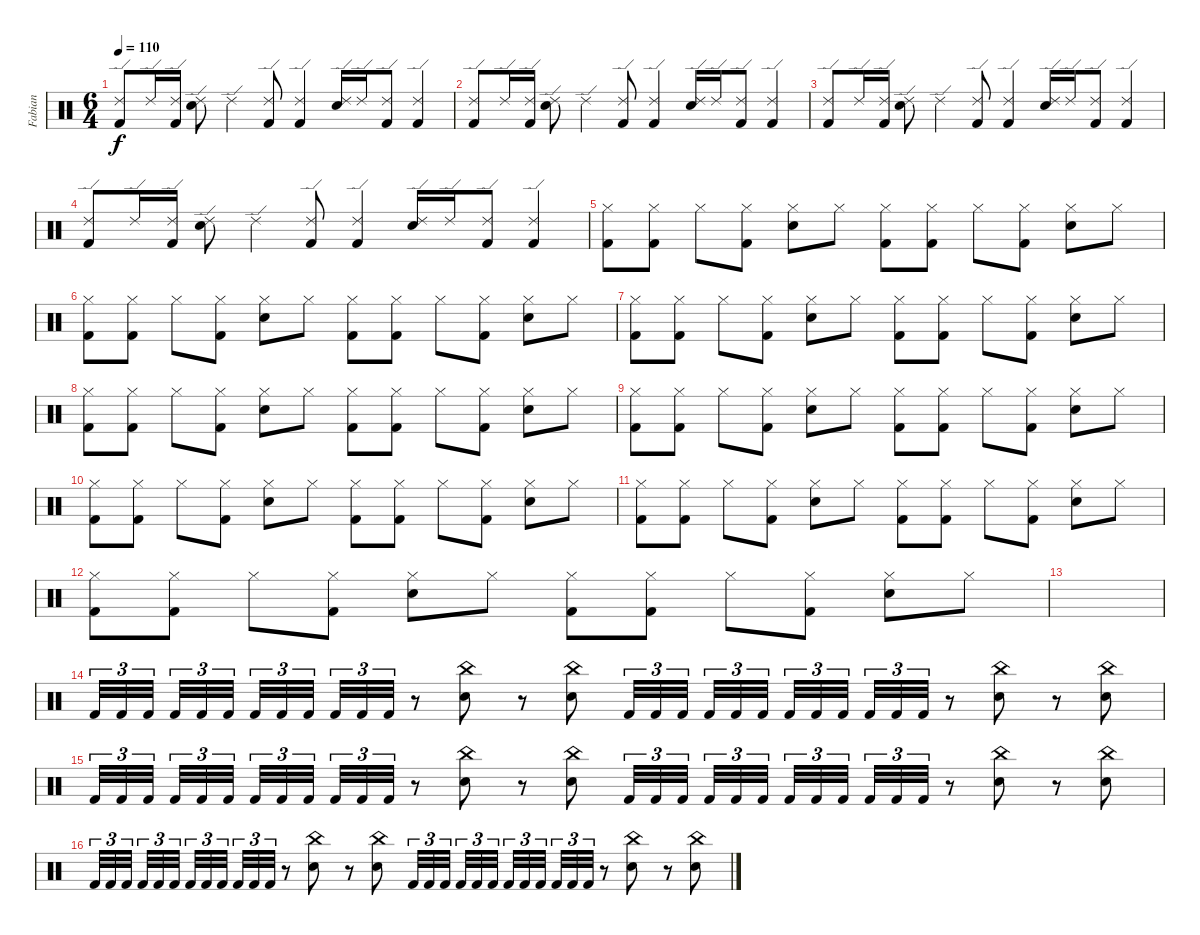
\track ("Fabian" "Fabian") {instrument percussion}
\staff {score}
\articulation defaults
\ts (6 4)
\tempo 110
\clef neutral
\ks c
("Ride (edge) 2" "Kick (hit) 2").8{dy f} "Ride (edge) 2".16 ("Ride (edge) 2" "Kick (hit) 2").16 ("Ride (edge) 2" "Snare (hit) 2").8 "Ride (edge) 2".4 ("Ride (edge) 2" "Kick (hit) 2").8 ("Ride (edge) 2" "Kick (hit) 2").4 ("Ride (edge) 2" "Snare (hit) 2").16 "Ride (edge) 2".16 ("Ride (edge) 2" "Kick (hit) 2").8 ("Ride (edge) 2" "Kick (hit) 2").4 |
("Ride (edge) 2" "Kick (hit) 2").8 "Ride (edge) 2".16 ("Ride (edge) 2" "Kick (hit) 2").16 ("Ride (edge) 2" "Snare (hit) 2").8 "Ride (edge) 2".4 ("Ride (edge) 2" "Kick (hit) 2").8 ("Ride (edge) 2" "Kick (hit) 2").4 ("Ride (edge) 2" "Snare (hit) 2").16 "Ride (edge) 2".16 ("Ride (edge) 2" "Kick (hit) 2").8 ("Ride (edge) 2" "Kick (hit) 2").4 |
("Ride (edge) 2" "Kick (hit) 2").8 "Ride (edge) 2".16 ("Ride (edge) 2" "Kick (hit) 2").16 ("Ride (edge) 2" "Snare (hit) 2").8 "Ride (edge) 2".4 ("Ride (edge) 2" "Kick (hit) 2").8 ("Ride (edge) 2" "Kick (hit) 2").4 ("Ride (edge) 2" "Snare (hit) 2").16 "Ride (edge) 2".16 ("Ride (edge) 2" "Kick (hit) 2").8 ("Ride (edge) 2" "Kick (hit) 2").4 |
("Ride (edge) 2" "Kick (hit) 2").8 "Ride (edge) 2".16 ("Ride (edge) 2" "Kick (hit) 2").16 ("Ride (edge) 2" "Snare (hit) 2").8 "Ride (edge) 2".4 ("Ride (edge) 2" "Kick (hit) 2").8 ("Ride (edge) 2" "Kick (hit) 2").4 ("Ride (edge) 2" "Snare (hit) 2").16 "Ride (edge) 2".16 ("Ride (edge) 2" "Kick (hit) 2").8 ("Ride (edge) 2" "Kick (hit) 2").4 |
("Hi-Hat (closed)" "Kick (hit) 2").8 ("Hi-Hat (closed)" "Kick (hit) 2").8 "Hi-Hat (closed)".8 ("Hi-Hat (closed)" "Kick (hit) 2").8 ("Hi-Hat (closed)" "Snare (hit) 2").8 "Hi-Hat (closed)".8 ("Hi-Hat (closed)" "Kick (hit) 2").8 ("Hi-Hat (closed)" "Kick (hit) 2").8 "Hi-Hat (closed)".8 ("Hi-Hat (closed)" "Kick (hit) 2").8 ("Hi-Hat (closed)" "Snare (hit) 2").8 "Hi-Hat (closed)".8 |
("Hi-Hat (closed)" "Kick (hit) 2").8 ("Hi-Hat (closed)" "Kick (hit) 2").8 "Hi-Hat (closed)".8 ("Hi-Hat (closed)" "Kick (hit) 2").8 ("Hi-Hat (closed)" "Snare (hit) 2").8 "Hi-Hat (closed)".8 ("Hi-Hat (closed)" "Kick (hit) 2").8 ("Hi-Hat (closed)" "Kick (hit) 2").8 "Hi-Hat (closed)".8 ("Hi-Hat (closed)" "Kick (hit) 2").8 ("Hi-Hat (closed)" "Snare (hit) 2").8 "Hi-Hat (closed)".8 |
("Hi-Hat (closed)" "Kick (hit) 2").8 ("Hi-Hat (closed)" "Kick (hit) 2").8 "Hi-Hat (closed)".8 ("Hi-Hat (closed)" "Kick (hit) 2").8 ("Hi-Hat (closed)" "Snare (hit) 2").8 "Hi-Hat (closed)".8 ("Hi-Hat (closed)" "Kick (hit) 2").8 ("Hi-Hat (closed)" "Kick (hit) 2").8 "Hi-Hat (closed)".8 ("Hi-Hat (closed)" "Kick (hit) 2").8 ("Hi-Hat (closed)" "Snare (hit) 2").8 "Hi-Hat (closed)".8 |
("Hi-Hat (closed)" "Kick (hit) 2").8 ("Hi-Hat (closed)" "Kick (hit) 2").8 "Hi-Hat (closed)".8 ("Hi-Hat (closed)" "Kick (hit) 2").8 ("Hi-Hat (closed)" "Snare (hit) 2").8 "Hi-Hat (closed)".8 ("Hi-Hat (closed)" "Kick (hit) 2").8 ("Hi-Hat (closed)" "Kick (hit) 2").8 "Hi-Hat (closed)".8 ("Hi-Hat (closed)" "Kick (hit) 2").8 ("Hi-Hat (closed)" "Snare (hit) 2").8 "Hi-Hat (closed)".8 |
("Hi-Hat (closed)" "Kick (hit) 2").8 ("Hi-Hat (closed)" "Kick (hit) 2").8 "Hi-Hat (closed)".8 ("Hi-Hat (closed)" "Kick (hit) 2").8 ("Hi-Hat (closed)" "Snare (hit) 2").8 "Hi-Hat (closed)".8 ("Hi-Hat (closed)" "Kick (hit) 2").8 ("Hi-Hat (closed)" "Kick (hit) 2").8 "Hi-Hat (closed)".8 ("Hi-Hat (closed)" "Kick (hit) 2").8 ("Hi-Hat (closed)" "Snare (hit) 2").8 "Hi-Hat (closed)".8 |
("Hi-Hat (closed)" "Kick (hit) 2").8 ("Hi-Hat (closed)" "Kick (hit) 2").8 "Hi-Hat (closed)".8 ("Hi-Hat (closed)" "Kick (hit) 2").8 ("Hi-Hat (closed)" "Snare (hit) 2").8 "Hi-Hat (closed)".8 ("Hi-Hat (closed)" "Kick (hit) 2").8 ("Hi-Hat (closed)" "Kick (hit) 2").8 "Hi-Hat (closed)".8 ("Hi-Hat (closed)" "Kick (hit) 2").8 ("Hi-Hat (closed)" "Snare (hit) 2").8 "Hi-Hat (closed)".8 |
("Hi-Hat (closed)" "Kick (hit) 2").8 ("Hi-Hat (closed)" "Kick (hit) 2").8 "Hi-Hat (closed)".8 ("Hi-Hat (closed)" "Kick (hit) 2").8 ("Hi-Hat (closed)" "Snare (hit) 2").8 "Hi-Hat (closed)".8 ("Hi-Hat (closed)" "Kick (hit) 2").8 ("Hi-Hat (closed)" "Kick (hit) 2").8 "Hi-Hat (closed)".8 ("Hi-Hat (closed)" "Kick (hit) 2").8 ("Hi-Hat (closed)" "Snare (hit) 2").8 "Hi-Hat (closed)".8 |
("Hi-Hat (closed)" "Kick (hit) 2").8 ("Hi-Hat (closed)" "Kick (hit) 2").8 "Hi-Hat (closed)".8 ("Hi-Hat (closed)" "Kick (hit) 2").8 ("Hi-Hat (closed)" "Snare (hit) 2").8 "Hi-Hat (closed)".8 ("Hi-Hat (closed)" "Kick (hit) 2").8 ("Hi-Hat (closed)" "Kick (hit) 2").8 "Hi-Hat (closed)".8 ("Hi-Hat (closed)" "Kick (hit) 2").8 ("Hi-Hat (closed)" "Snare (hit) 2").8 "Hi-Hat (closed)".8 |
|
"Kick (hit) 2".32{tu (3 2)} "Kick (hit) 2".32{tu (3 2)} "Kick (hit) 2".32{tu (3 2)} "Kick (hit) 2".32{tu (3 2)} "Kick (hit) 2".32{tu (3 2)} "Kick (hit) 2".32{tu (3 2)} "Kick (hit) 2".32{tu (3 2)} "Kick (hit) 2".32{tu (3 2)} "Kick (hit) 2".32{tu (3 2)} "Kick (hit) 2".32{tu (3 2)} "Kick (hit) 2".32{tu (3 2)} "Kick (hit) 2".32{tu (3 2)} r.8 ("China (hit)" "Snare (hit) 2").8 r.8 ("China (hit)" "Snare (hit) 2").8 "Kick (hit) 2".32{tu (3 2)} "Kick (hit) 2".32{tu (3 2)} "Kick (hit) 2".32{tu (3 2)} "Kick (hit) 2".32{tu (3 2)} "Kick (hit) 2".32{tu (3 2)} "Kick (hit) 2".32{tu (3 2)} "Kick (hit) 2".32{tu (3 2)} "Kick (hit) 2".32{tu (3 2)} "Kick (hit) 2".32{tu (3 2)} "Kick (hit) 2".32{tu (3 2)} "Kick (hit) 2".32{tu (3 2)} "Kick (hit) 2".32{tu (3 2)} r.8 ("China (hit)" "Snare (hit) 2").8 r.8 ("China (hit)" "Snare (hit) 2").8 |
"Kick (hit) 2".32{tu (3 2)} "Kick (hit) 2".32{tu (3 2)} "Kick (hit) 2".32{tu (3 2)} "Kick (hit) 2".32{tu (3 2)} "Kick (hit) 2".32{tu (3 2)} "Kick (hit) 2".32{tu (3 2)} "Kick (hit) 2".32{tu (3 2)} "Kick (hit) 2".32{tu (3 2)} "Kick (hit) 2".32{tu (3 2)} "Kick (hit) 2".32{tu (3 2)} "Kick (hit) 2".32{tu (3 2)} "Kick (hit) 2".32{tu (3 2)} r.8 ("China (hit)" "Snare (hit) 2").8 r.8 ("China (hit)" "Snare (hit) 2").8 "Kick (hit) 2".32{tu (3 2)} "Kick (hit) 2".32{tu (3 2)} "Kick (hit) 2".32{tu (3 2)} "Kick (hit) 2".32{tu (3 2)} "Kick (hit) 2".32{tu (3 2)} "Kick (hit) 2".32{tu (3 2)} "Kick (hit) 2".32{tu (3 2)} "Kick (hit) 2".32{tu (3 2)} "Kick (hit) 2".32{tu (3 2)} "Kick (hit) 2".32{tu (3 2)} "Kick (hit) 2".32{tu (3 2)} "Kick (hit) 2".32{tu (3 2)} r.8 ("China (hit)" "Snare (hit) 2").8 r.8 ("China (hit)" "Snare (hit) 2").8 |
"Kick (hit) 2".32{tu (3 2)} "Kick (hit) 2".32{tu (3 2)} "Kick (hit) 2".32{tu (3 2)} "Kick (hit) 2".32{tu (3 2)} "Kick (hit) 2".32{tu (3 2)} "Kick (hit) 2".32{tu (3 2)} "Kick (hit) 2".32{tu (3 2)} "Kick (hit) 2".32{tu (3 2)} "Kick (hit) 2".32{tu (3 2)} "Kick (hit) 2".32{tu (3 2)} "Kick (hit) 2".32{tu (3 2)} "Kick (hit) 2".32{tu (3 2)} r.8 ("China (hit)" "Snare (hit) 2").8 r.8 ("China (hit)" "Snare (hit) 2").8 "Kick (hit) 2".32{tu (3 2)} "Kick (hit) 2".32{tu (3 2)} "Kick (hit) 2".32{tu (3 2)} "Kick (hit) 2".32{tu (3 2)} "Kick (hit) 2".32{tu (3 2)} "Kick (hit) 2".32{tu (3 2)} "Kick (hit) 2".32{tu (3 2)} "Kick (hit) 2".32{tu (3 2)} "Kick (hit) 2".32{tu (3 2)} "Kick (hit) 2".32{tu (3 2)} "Kick (hit) 2".32{tu (3 2)} "Kick (hit) 2".32{tu (3 2)} r.8 ("China (hit)" "Snare (hit) 2").8 r.8 ("China (hit)" "Snare (hit) 2").8
